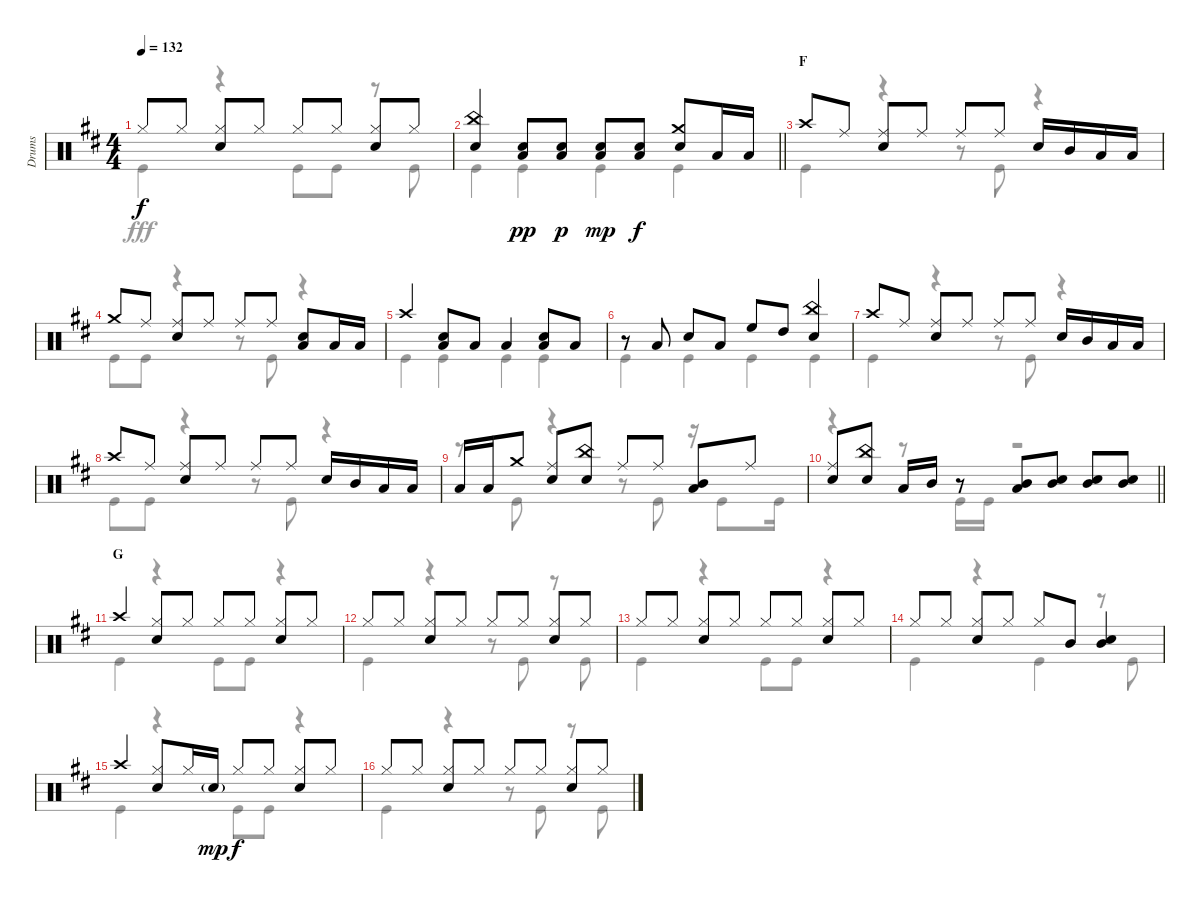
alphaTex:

\track ("Drums" "Drums") {instrument percussion}
\staff {score}
\articulation defaults
\voice
\ts (4 4)
\tempo 132
\clef neutral
\ks d "Hi-Hat (closed)".8{dy f} "Hi-Hat (closed)".8
("Hi-Hat (closed)" "Snare (hit) 2").8 "Hi-Hat (closed)".8 "Hi-Hat (closed)".8 "Hi-Hat (closed)".8 ("Hi-Hat (closed)" "Snare (hit) 2").8 "Hi-Hat (closed)".8 |
\barLineRight lightlight
("China (hit)" "Snare (hit) 2").4 ("Snare (hit) 2" "Low Tom (hit)").8{dy pp} ("Snare (hit) 2" "Low Tom (hit)").8{dy p} ("Snare (hit) 2" "Low Tom (hit)").8{dy mp} ("Snare (hit) 2" "Low Tom (hit)").8{dy f} ("Crash medium (hit)" "Snare (hit) 2").8 "Low Tom (hit)".16 "Low Tom (hit)".16 |
\section ("" "F")
"Crash high (hit)".8 "Ride (middle)".8 ("Ride (middle)" "Snare (hit) 2").8 "Ride (middle)".8 "Ride (middle)".8 "Ride (middle)".8 "Snare (hit) 2".16 "Mid Tom (hit)".16 "Low Tom (hit)".16 "Low Tom (hit)".16 |
"Crash medium (hit)".8 "Ride (middle)".8 ("Ride (middle)" "Snare (hit) 2").8 "Ride (middle)".8 "Ride (middle)".8 "Ride (middle)".8 ("Snare (hit) 2" "Low Tom (hit)").8 "Low Tom (hit)".16 "Low Tom (hit)".16 |
"Crash high (hit)".4 ("Snare (hit) 2" "Low Tom (hit)").8 "Low Tom (hit)".8 "Low Tom (hit)".4 ("Low Tom (hit)" "Snare (hit) 2").8 "Low Tom (hit)".8 |
r.8 "Low Tom (hit)".8 "Snare (hit) 2".8 "Low Tom (hit)".8 "High Floor Tom (hit)".8 "High Tom (hit)".8 ("China (hit)" "Snare (hit) 2").4 |
"Crash high (hit)".8 "Ride (middle)".8 ("Ride (middle)" "Snare (hit) 2").8 "Ride (middle)".8 "Ride (middle)".8 "Ride (middle)".8 "Snare (hit) 2".16 "Mid Tom (hit)".16 "Low Tom (hit)".16 "Low Tom (hit)".16 |
"Crash high (hit)".8 "Ride (middle)".8 ("Ride (middle)" "Snare (hit) 2").8 "Ride (middle)".8 "Ride (middle)".8 "Ride (middle)".8 "Snare (hit) 2".16 "Mid Tom (hit)".16 "Low Tom (hit)".16 "Low Tom (hit)".16 |
"Low Tom (hit)".16 "Low Tom (hit)".16 "Crash medium (hit)".8 ("Ride (middle)" "Snare (hit) 2").8 ("China (hit)" "Snare (hit) 2").8 "Ride (middle)".8 "Ride (middle)".8 ("Mid Tom (hit)" "Low Tom (hit)").8 "Ride (middle)".8 |
\barLineRight lightlight
("Ride (middle)" "Snare (hit) 2").8 ("China (hit)" "Snare (hit) 2").8 "Low Tom (hit)".16 "Mid Tom (hit)".16 r.8 ("Mid Tom (hit)" "Low Tom (hit)").8 ("Mid Tom (hit)" "Snare (hit) 2").8 ("Mid Tom (hit)" "Snare (hit) 2").8 ("Mid Tom (hit)" "Snare (hit) 2").8 |
\section ("" "G")
"Crash high (hit)".4 ("Hi-Hat (closed)" "Snare (hit) 2").8 "Hi-Hat (closed)".8 "Hi-Hat (closed)".8 "Hi-Hat (closed)".8 ("Hi-Hat (closed)" "Snare (hit) 2").8 "Hi-Hat (closed)".8 |
"Hi-Hat (closed)".8 "Hi-Hat (closed)".8 ("Hi-Hat (closed)" "Snare (hit) 2").8 "Hi-Hat (closed)".8 "Hi-Hat (closed)".8 "Hi-Hat (closed)".8 ("Hi-Hat (closed)" "Snare (hit) 2").8 "Hi-Hat (closed)".8 |
"Hi-Hat (closed)".8 "Hi-Hat (closed)".8 ("Hi-Hat (closed)" "Snare (hit) 2").8 "Hi-Hat (closed)".8 "Hi-Hat (closed)".8 "Hi-Hat (closed)".8 ("Hi-Hat (closed)" "Snare (hit) 2").8 "Hi-Hat (closed)".8 |
"Hi-Hat (closed)".8 "Hi-Hat (closed)".8 ("Hi-Hat (closed)" "Snare (hit) 2").8 "Hi-Hat (closed)".8 "Hi-Hat (closed)".8 "Mid Tom (hit)".8 ("Mid Tom (hit)" "Snare (hit) 2").4 |
"Crash high (hit)".4 ("Hi-Hat (closed)" "Snare (hit) 2").8 "Hi-Hat (closed)".16 "Snare (hit) 2"{g}.16{dy mp} "Hi-Hat (closed)".8{dy f} "Hi-Hat (closed)".8 ("Hi-Hat (closed)" "Snare (hit) 2").8 "Hi-Hat (closed)".8 |
"Hi-Hat (closed)".8 "Hi-Hat (closed)".8 ("Hi-Hat (closed)" "Snare (hit) 2").8 "Hi-Hat (closed)".8 "Hi-Hat (closed)".8 "Hi-Hat (closed)".8 ("Hi-Hat (closed)" "Snare (hit) 2").8 "Hi-Hat (closed)".8
\voice
\clef neutral
\ottava regular
\simile none
\ks d "Kick (hit)".4{dy fff}
r.4 "Kick (hit)".8 "Kick (hit)".8 r.8 "Kick (hit)".8 |
\barLineRight lightlight "Kick (hit)".4 "Kick (hit)".4 "Kick (hit)".4 "Kick (hit)".4
|
"Kick (hit)".4 r.4 r.8 "Kick (hit)".8 r.4 |
"Kick (hit)".8 "Kick (hit)".8 r.4 r.8 "Kick (hit)".8 r.4 |
"Kick (hit)".4 "Kick (hit)".4 "Kick (hit)".4 "Kick (hit)".4 |
"Kick (hit)".4 "Kick (hit)".4 "Kick (hit)".4 "Kick (hit)".4 |
"Kick (hit)".4 r.4 r.8 "Kick (hit)".8 r.4 |
"Kick (hit)".8 "Kick (hit)".8 r.4 r.8 "Kick (hit)".8 r.4 |
r.8 "Kick (hit)".8 r.4 r.8 "Kick (hit)".8 r.16 "Kick (hit)".8 "Kick (hit)".16 |
\barLineRight lightlight
r.4 r.8 "Kick (hit)".16 "Kick (hit)".16 r.2 |
"Kick (hit)".4 r.4 "Kick (hit)".8 "Kick (hit)".8 r.4 |
"Kick (hit)".4 r.4 r.8 "Kick (hit)".8 r.8 "Kick (hit)".8 |
"Kick (hit)".4 r.4 "Kick (hit)".8 "Kick (hit)".8 r.4 |
"Kick (hit)".4 r.4 "Kick (hit)".4 r.8 "Kick (hit)".8 |
"Kick (hit)".4 r.4 "Kick (hit)".8 "Kick (hit)".8 r.4 |
"Kick (hit)".4 r.4 r.8 "Kick (hit)".8 r.8 "Kick (hit)".8
